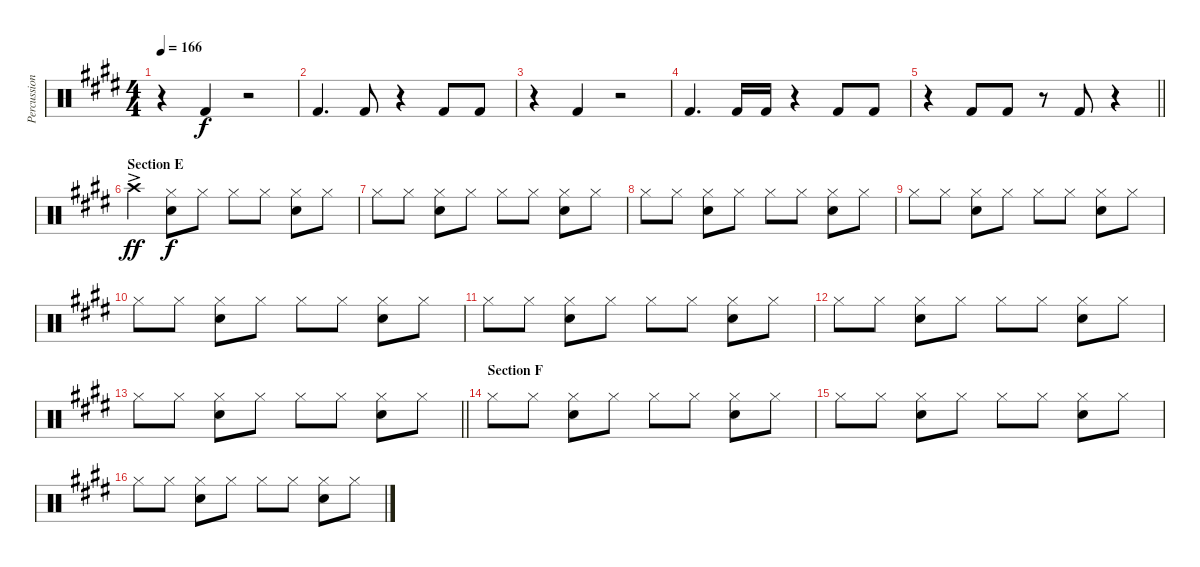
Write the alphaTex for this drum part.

\track ("Percussion - Other Again" "Percussion") {instrument percussion}
\staff {score}
\articulation defaults
\ts (4 4)
\tempo 166
\clef neutral
\ks e
r.4{dy f} "Kick (hit) 2".4 r.2 |
"Kick (hit) 2".4{d} "Kick (hit) 2".8 r.4 "Kick (hit) 2".8 "Kick (hit) 2".8 |
r.4 "Kick (hit) 2".4 r.2 |
"Kick (hit) 2".4{d} "Kick (hit) 2".16 "Kick (hit) 2".16 r.4 "Kick (hit) 2".8 "Kick (hit) 2".8 |
\barLineRight lightlight
r.4 "Kick (hit) 2".8 "Kick (hit) 2".8 r.8 "Kick (hit) 2".8 r.4 |
\section ("" "Section E")
"Crash high (hit)"{ac}.4{dy ff} ("Hi-Hat (closed)" "Snare (hit) 2").8{dy f} "Hi-Hat (closed)".8 "Hi-Hat (closed)".8 "Hi-Hat (closed)".8 ("Hi-Hat (closed)" "Snare (hit) 2").8 "Hi-Hat (closed)".8 |
"Hi-Hat (closed)".8 "Hi-Hat (closed)".8 ("Hi-Hat (closed)" "Snare (hit) 2").8 "Hi-Hat (closed)".8 "Hi-Hat (closed)".8 "Hi-Hat (closed)".8 ("Hi-Hat (closed)" "Snare (hit) 2").8 "Hi-Hat (closed)".8 |
"Hi-Hat (closed)".8 "Hi-Hat (closed)".8 ("Hi-Hat (closed)" "Snare (hit) 2").8 "Hi-Hat (closed)".8 "Hi-Hat (closed)".8 "Hi-Hat (closed)".8 ("Hi-Hat (closed)" "Snare (hit) 2").8 "Hi-Hat (closed)".8 |
"Hi-Hat (closed)".8 "Hi-Hat (closed)".8 ("Hi-Hat (closed)" "Snare (hit) 2").8 "Hi-Hat (closed)".8 "Hi-Hat (closed)".8 "Hi-Hat (closed)".8 ("Hi-Hat (closed)" "Snare (hit) 2").8 "Hi-Hat (closed)".8 |
"Hi-Hat (closed)".8 "Hi-Hat (closed)".8 ("Hi-Hat (closed)" "Snare (hit) 2").8 "Hi-Hat (closed)".8 "Hi-Hat (closed)".8 "Hi-Hat (closed)".8 ("Hi-Hat (closed)" "Snare (hit) 2").8 "Hi-Hat (closed)".8 |
"Hi-Hat (closed)".8 "Hi-Hat (closed)".8 ("Hi-Hat (closed)" "Snare (hit) 2").8 "Hi-Hat (closed)".8 "Hi-Hat (closed)".8 "Hi-Hat (closed)".8 ("Hi-Hat (closed)" "Snare (hit) 2").8 "Hi-Hat (closed)".8 |
"Hi-Hat (closed)".8 "Hi-Hat (closed)".8 ("Hi-Hat (closed)" "Snare (hit) 2").8 "Hi-Hat (closed)".8 "Hi-Hat (closed)".8 "Hi-Hat (closed)".8 ("Hi-Hat (closed)" "Snare (hit) 2").8 "Hi-Hat (closed)".8 |
\barLineRight lightlight "Hi-Hat (closed)".8 "Hi-Hat (closed)".8
("Hi-Hat (closed)" "Snare (hit) 2").8 "Hi-Hat (closed)".8 "Hi-Hat (closed)".8 "Hi-Hat (closed)".8 ("Hi-Hat (closed)" "Snare (hit) 2").8 "Hi-Hat (closed)".8 |
\section ("" "Section F")
"Hi-Hat (closed)".8 "Hi-Hat (closed)".8 ("Hi-Hat (closed)" "Snare (hit) 2").8 "Hi-Hat (closed)".8 "Hi-Hat (closed)".8 "Hi-Hat (closed)".8 ("Hi-Hat (closed)" "Snare (hit) 2").8 "Hi-Hat (closed)".8 |
"Hi-Hat (closed)".8 "Hi-Hat (closed)".8 ("Hi-Hat (closed)" "Snare (hit) 2").8 "Hi-Hat (closed)".8 "Hi-Hat (closed)".8 "Hi-Hat (closed)".8 ("Hi-Hat (closed)" "Snare (hit) 2").8 "Hi-Hat (closed)".8 |
"Hi-Hat (closed)".8 "Hi-Hat (closed)".8 ("Hi-Hat (closed)" "Snare (hit) 2").8 "Hi-Hat (closed)".8 "Hi-Hat (closed)".8 "Hi-Hat (closed)".8 ("Hi-Hat (closed)" "Snare (hit) 2").8 "Hi-Hat (closed)".8
